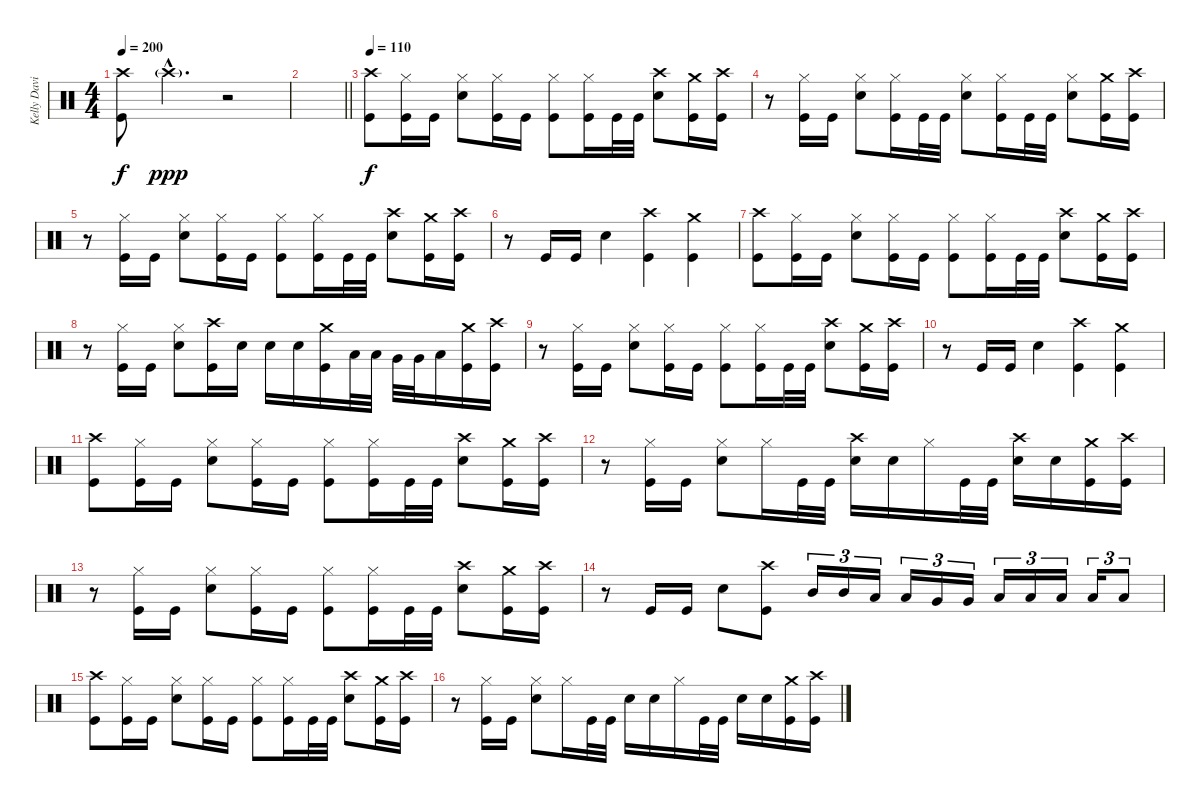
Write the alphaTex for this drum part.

\track ("Kelly David Smith" "Kelly Davi") {instrument percussion}
\staff {score}
\articulation defaults
\ts (4 4)
\tempo 200
\clef neutral
\ks c
("Crash high (hit)" "Kick (hit)").8{dy f} "Crash high (hit)"{g hac}.4{d dy ppp} r.2 |
\barLineRight lightlight
|
\tempo 110
("Crash high (hit)" "Kick (hit)").8{dy f} ("Hi-Hat (closed)" "Kick (hit)").16 "Kick (hit)".16 ("Hi-Hat (closed)" "Snare (hit) 2").8 ("Hi-Hat (closed)" "Kick (hit)").16 "Kick (hit)".16 ("Hi-Hat (closed)" "Kick (hit)").8 ("Hi-Hat (closed)" "Kick (hit)").16 "Kick (hit)".32 "Kick (hit)".32 ("Crash high (hit)" "Snare (hit) 2").8 ("Crash medium (hit)" "Kick (hit)").16 ("Crash high (hit)" "Kick (hit)").16 |
r.8 ("Hi-Hat (closed)" "Kick (hit)").16 "Kick (hit)".16 ("Hi-Hat (closed)" "Snare (hit) 2").8 ("Hi-Hat (closed)" "Kick (hit)").16 "Kick (hit)".32 "Kick (hit)".32 ("Hi-Hat (closed)" "Snare (hit) 2").8 ("Hi-Hat (closed)" "Kick (hit)").16 "Kick (hit)".32 "Kick (hit)".32 ("Hi-Hat (closed)" "Snare (hit) 2").8 ("Crash medium (hit)" "Kick (hit)").16 ("Crash high (hit)" "Kick (hit)").16 |
r.8 ("Hi-Hat (closed)" "Kick (hit)").16 "Kick (hit)".16 ("Hi-Hat (closed)" "Snare (hit) 2").8 ("Hi-Hat (closed)" "Kick (hit)").16 "Kick (hit)".16 ("Hi-Hat (closed)" "Kick (hit)").8 ("Hi-Hat (closed)" "Kick (hit)").16 "Kick (hit)".32 "Kick (hit)".32 ("Crash high (hit)" "Snare (hit) 2").8 ("Crash medium (hit)" "Kick (hit)").16 ("Crash high (hit)" "Kick (hit)").16 |
r.8 "Kick (hit)".16 "Kick (hit)".16 "Snare (hit) 2".4 ("Crash high (hit)" "Kick (hit)").4 ("Crash medium (hit)" "Kick (hit)").4 |
("Crash high (hit)" "Kick (hit)").8 ("Hi-Hat (closed)" "Kick (hit)").16 "Kick (hit)".16 ("Hi-Hat (closed)" "Snare (hit) 2").8 ("Hi-Hat (closed)" "Kick (hit)").16 "Kick (hit)".16 ("Hi-Hat (closed)" "Kick (hit)").8 ("Hi-Hat (closed)" "Kick (hit)").16 "Kick (hit)".32 "Kick (hit)".32 ("Crash high (hit)" "Snare (hit) 2").8 ("Crash medium (hit)" "Kick (hit)").16 ("Crash high (hit)" "Kick (hit)").16 |
r.8 ("Hi-Hat (closed)" "Kick (hit)").16 "Kick (hit)".16 ("Hi-Hat (closed)" "Snare (hit) 2").8 ("Crash high (hit)" "Kick (hit)").16 "Snare (hit) 2".16 "Snare (hit) 2".16 "Snare (hit) 2".16 ("Crash medium (hit)" "Kick (hit)").16 "Low Tom (hit)".32 "Low Tom (hit)".32 "Very Low Tom (hit)".32 "Very Low Tom (hit)".32 "Low Floor Tom (hit)".16 ("Crash medium (hit)" "Kick (hit)").16 ("Crash high (hit)" "Kick (hit)").16 |
r.8 ("Hi-Hat (closed)" "Kick (hit)").16 "Kick (hit)".16 ("Hi-Hat (closed)" "Snare (hit) 2").8 ("Hi-Hat (closed)" "Kick (hit)").16 "Kick (hit)".16 ("Hi-Hat (closed)" "Kick (hit)").8 ("Hi-Hat (closed)" "Kick (hit)").16 "Kick (hit)".32 "Kick (hit)".32 ("Crash high (hit)" "Snare (hit) 2").8 ("Crash medium (hit)" "Kick (hit)").16 ("Crash high (hit)" "Kick (hit)").16 |
r.8 "Kick (hit)".16 "Kick (hit)".16 "Snare (hit) 2".4 ("Crash high (hit)" "Kick (hit)").4 ("Crash medium (hit)" "Kick (hit)").4 |
("Crash high (hit)" "Kick (hit)").8 ("Hi-Hat (closed)" "Kick (hit)").16 "Kick (hit)".16 ("Hi-Hat (closed)" "Snare (hit) 2").8 ("Hi-Hat (closed)" "Kick (hit)").16 "Kick (hit)".16 ("Hi-Hat (closed)" "Kick (hit)").8 ("Hi-Hat (closed)" "Kick (hit)").16 "Kick (hit)".32 "Kick (hit)".32 ("Crash high (hit)" "Snare (hit) 2").8 ("Crash medium (hit)" "Kick (hit)").16 ("Crash high (hit)" "Kick (hit)").16 |
r.8 ("Hi-Hat (closed)" "Kick (hit)").16 "Kick (hit)".16 ("Hi-Hat (closed)" "Snare (hit) 2").8 "Hi-Hat (closed)".16 "Kick (hit)".32 "Kick (hit)".32 ("Crash high (hit)" "Snare (hit) 2").16 "Snare (hit) 2".16 "Hi-Hat (closed)".16 "Kick (hit)".32 "Kick (hit)".32 ("Crash high (hit)" "Snare (hit) 2").16 "Snare (hit) 2".16 ("Crash medium (hit)" "Kick (hit)").16 ("Crash high (hit)" "Kick (hit)").16 |
r.8 ("Hi-Hat (closed)" "Kick (hit)").16 "Kick (hit)".16 ("Hi-Hat (closed)" "Snare (hit) 2").8 ("Hi-Hat (closed)" "Kick (hit)").16 "Kick (hit)".16 ("Hi-Hat (closed)" "Kick (hit)").8 ("Hi-Hat (closed)" "Kick (hit)").16 "Kick (hit)".32 "Kick (hit)".32 ("Crash high (hit)" "Snare (hit) 2").8 ("Crash medium (hit)" "Kick (hit)").16 ("Crash high (hit)" "Kick (hit)").16 |
r.8 "Kick (hit)".16 "Kick (hit)".16 "Snare (hit) 2".8 ("Crash high (hit)" "Kick (hit)").8 "Mid Tom (hit)".16{tu (3 2)} "Mid Tom (hit)".16{tu (3 2)} "Low Tom (hit)".16{tu (3 2)} "Low Tom (hit)".16{tu (3 2)} "Very Low Tom (hit)".16{tu (3 2)} "Very Low Tom (hit)".16{tu (3 2)} "Low Floor Tom (hit)".16{tu (3 2)} "Low Floor Tom (hit)".16{tu (3 2)} "Low Floor Tom (hit)".16{tu (3 2)} "Low Floor Tom (hit)".16{tu (3 2)} "Low Floor Tom (hit)".8{tu (3 2)} |
("Crash high (hit)" "Kick (hit)").8 ("Hi-Hat (closed)" "Kick (hit)").16 "Kick (hit)".16 ("Hi-Hat (closed)" "Snare (hit) 2").8 ("Hi-Hat (closed)" "Kick (hit)").16 "Kick (hit)".16 ("Hi-Hat (closed)" "Kick (hit)").8 ("Hi-Hat (closed)" "Kick (hit)").16 "Kick (hit)".32 "Kick (hit)".32 ("Crash high (hit)" "Snare (hit) 2").8 ("Crash medium (hit)" "Kick (hit)").16 ("Crash high (hit)" "Kick (hit)").16 |
r.8 ("Hi-Hat (closed)" "Kick (hit)").16 "Kick (hit)".16 ("Hi-Hat (closed)" "Snare (hit) 2").8 "Hi-Hat (closed)".16 "Kick (hit)".32 "Kick (hit)".32 "Snare (hit) 2".16 "Snare (hit) 2".16 "Hi-Hat (closed)".16 "Kick (hit)".32 "Kick (hit)".32 "Snare (hit) 2".16 "Snare (hit) 2".16 ("Crash medium (hit)" "Kick (hit)").16 ("Crash high (hit)" "Kick (hit)").16
